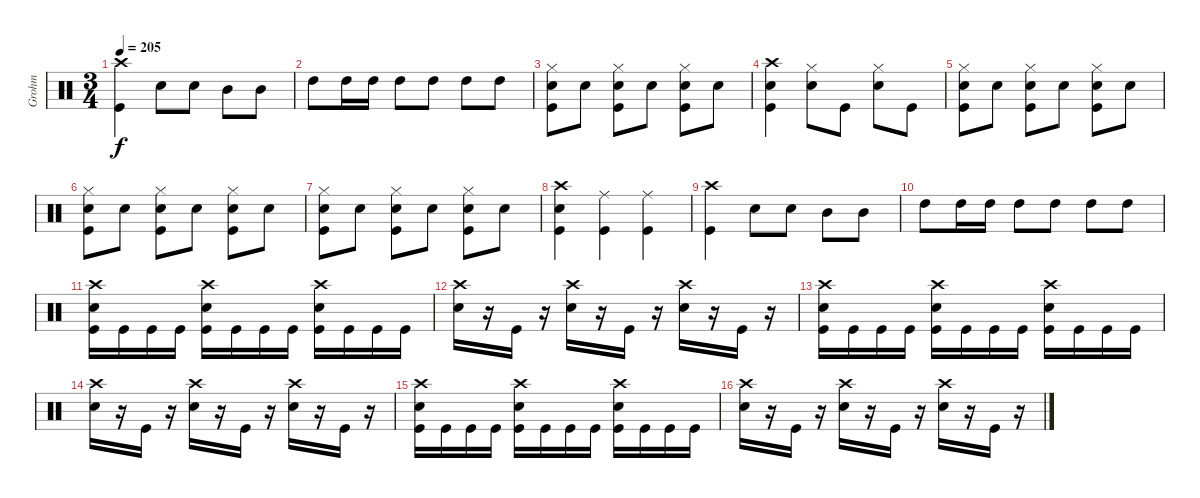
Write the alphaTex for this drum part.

\track ("Grohm" "Grohm") {instrument percussion}
\staff {score}
\articulation defaults
\ts (3 4)
\tempo 205
\clef neutral
\ks c
("Crash high (hit)" "Kick (hit)").4{dy f} "Snare (hit) 2".8 "Snare (hit) 2".8 "Mid Tom (hit)".8 "Mid Tom (hit)".8 |
"High Tom (hit)".8 "High Tom (hit)".16 "High Tom (hit)".16 "High Tom (hit)".8 "High Tom (hit)".8 "High Tom (hit)".8 "High Tom (hit)".8 |
("Hi-Hat (closed)" "Snare (hit) 2" "Kick (hit)").8 "Snare (hit) 2".8 ("Hi-Hat (closed)" "Snare (hit) 2" "Kick (hit)").8 "Snare (hit) 2".8 ("Hi-Hat (closed)" "Snare (hit) 2" "Kick (hit)").8 "Snare (hit) 2".8 |
("Crash high (hit)" "Snare (hit) 2" "Kick (hit)").4 ("Hi-Hat (closed)" "Snare (hit) 2").8 "Kick (hit)".8 ("Hi-Hat (closed)" "Snare (hit) 2").8 "Kick (hit)".8 |
("Hi-Hat (closed)" "Snare (hit) 2" "Kick (hit)").8 "Snare (hit) 2".8 ("Hi-Hat (closed)" "Snare (hit) 2" "Kick (hit)").8 "Snare (hit) 2".8 ("Hi-Hat (closed)" "Snare (hit) 2" "Kick (hit)").8 "Snare (hit) 2".8 |
("Hi-Hat (closed)" "Snare (hit) 2" "Kick (hit)").8 "Snare (hit) 2".8 ("Hi-Hat (closed)" "Snare (hit) 2" "Kick (hit)").8 "Snare (hit) 2".8 ("Hi-Hat (closed)" "Snare (hit) 2" "Kick (hit)").8 "Snare (hit) 2".8 |
("Hi-Hat (closed)" "Snare (hit) 2" "Kick (hit)").8 "Snare (hit) 2".8 ("Hi-Hat (closed)" "Snare (hit) 2" "Kick (hit)").8 "Snare (hit) 2".8 ("Hi-Hat (closed)" "Snare (hit) 2" "Kick (hit)").8 "Snare (hit) 2".8 |
("Crash high (hit)" "Snare (hit) 2" "Kick (hit)").4 ("Ride (middle)" "Kick (hit)").4 ("Ride (middle)" "Kick (hit)").4 |
("Crash high (hit)" "Kick (hit)").4 "Snare (hit) 2".8 "Snare (hit) 2".8 "Mid Tom (hit)".8 "Mid Tom (hit)".8 |
"High Tom (hit)".8 "High Tom (hit)".16 "High Tom (hit)".16 "High Tom (hit)".8 "High Tom (hit)".8 "High Tom (hit)".8 "High Tom (hit)".8 |
("Crash high (hit)" "Snare (hit) 2" "Kick (hit)").16 "Kick (hit)".16 "Kick (hit)".16 "Kick (hit)".16 ("Crash high (hit)" "Snare (hit) 2" "Kick (hit)").16 "Kick (hit)".16 "Kick (hit)".16 "Kick (hit)".16 ("Crash high (hit)" "Snare (hit) 2" "Kick (hit)").16 "Kick (hit)".16 "Kick (hit)".16 "Kick (hit)".16 |
("Crash high (hit)" "Snare (hit) 2").16 r.16 "Kick (hit)".16 r.16 ("Crash high (hit)" "Snare (hit) 2").16 r.16 "Kick (hit)".16 r.16 ("Crash high (hit)" "Snare (hit) 2").16 r.16 "Kick (hit)".16 r.16 |
("Crash high (hit)" "Snare (hit) 2" "Kick (hit)").16 "Kick (hit)".16 "Kick (hit)".16 "Kick (hit)".16 ("Crash high (hit)" "Snare (hit) 2" "Kick (hit)").16 "Kick (hit)".16 "Kick (hit)".16 "Kick (hit)".16 ("Crash high (hit)" "Snare (hit) 2" "Kick (hit)").16 "Kick (hit)".16 "Kick (hit)".16 "Kick (hit)".16 |
("Crash high (hit)" "Snare (hit) 2").16 r.16 "Kick (hit)".16 r.16 ("Crash high (hit)" "Snare (hit) 2").16 r.16 "Kick (hit)".16 r.16 ("Crash high (hit)" "Snare (hit) 2").16 r.16 "Kick (hit)".16 r.16 |
("Crash high (hit)" "Snare (hit) 2" "Kick (hit)").16 "Kick (hit)".16 "Kick (hit)".16 "Kick (hit)".16 ("Crash high (hit)" "Snare (hit) 2" "Kick (hit)").16 "Kick (hit)".16 "Kick (hit)".16 "Kick (hit)".16 ("Crash high (hit)" "Snare (hit) 2" "Kick (hit)").16 "Kick (hit)".16 "Kick (hit)".16 "Kick (hit)".16 |
("Crash high (hit)" "Snare (hit) 2").16 r.16 "Kick (hit)".16 r.16 ("Crash high (hit)" "Snare (hit) 2").16 r.16 "Kick (hit)".16 r.16 ("Crash high (hit)" "Snare (hit) 2").16 r.16 "Kick (hit)".16 r.16
